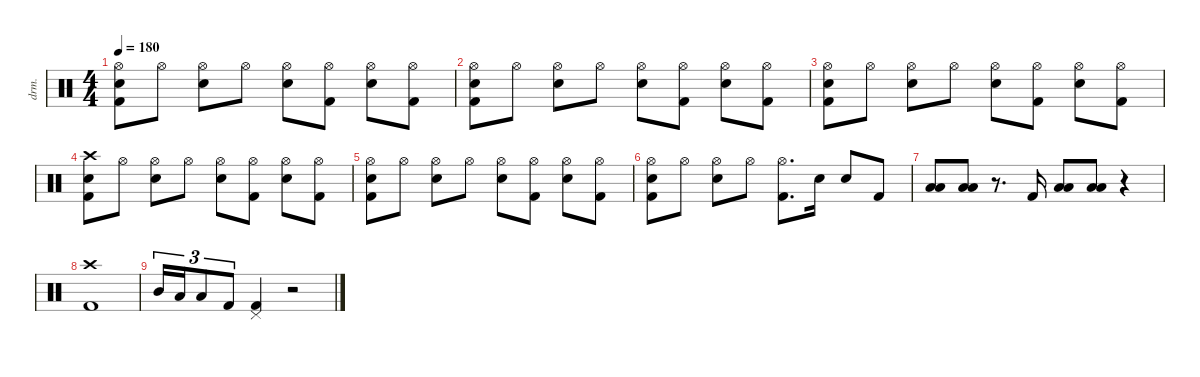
\defaultSystemsLayout 4
\hideDynamics
\bracketExtendMode nobrackets
\otherSystemsTrackNameOrientation horizontal
\track ("Drums: Ritsu Tainaka" "drm.") {instrument percussion}
\staff {score}
\articulation defaults
\ts (4 4)
\tempo 180
\clef neutral
\ks c
("Hi-Hat (open)" "Snare (hit) 2" "Kick (hit) 2").8{dy f beam Down} "Hi-Hat (open)".8{beam Down} ("Hi-Hat (open)" "Snare (hit) 2").8{beam Down} "Hi-Hat (open)".8{beam Down} ("Hi-Hat (open)" "Snare (hit) 2").8{beam Down} ("Hi-Hat (open)" "Kick (hit) 2").8{beam Down} ("Hi-Hat (open)" "Snare (hit) 2").8{beam Down} ("Hi-Hat (open)" "Kick (hit) 2").8{beam Down} |
("Hi-Hat (open)" "Snare (hit) 2" "Kick (hit) 2").8{beam Down} "Hi-Hat (open)".8{beam Down} ("Hi-Hat (open)" "Snare (hit) 2").8{beam Down} "Hi-Hat (open)".8{beam Down} ("Hi-Hat (open)" "Snare (hit) 2").8{beam Down} ("Hi-Hat (open)" "Kick (hit) 2").8{beam Down} ("Hi-Hat (open)" "Snare (hit) 2").8{beam Down} ("Hi-Hat (open)" "Kick (hit) 2").8{beam Down} |
("Hi-Hat (open)" "Snare (hit) 2" "Kick (hit) 2").8{beam Down} "Hi-Hat (open)".8{beam Down} ("Hi-Hat (open)" "Snare (hit) 2").8{beam Down} "Hi-Hat (open)".8{beam Down} ("Hi-Hat (open)" "Snare (hit) 2").8{beam Down} ("Hi-Hat (open)" "Kick (hit) 2").8{beam Down} ("Hi-Hat (open)" "Snare (hit) 2").8{beam Down} ("Hi-Hat (open)" "Kick (hit) 2").8{beam Down} |
("Crash high (hit)" "Snare (hit) 2" "Kick (hit) 2").8{beam Down} "Hi-Hat (open)".8{beam Down} ("Hi-Hat (open)" "Snare (hit) 2").8{beam Down} "Hi-Hat (open)".8{beam Down} ("Hi-Hat (open)" "Snare (hit) 2").8{beam Down} ("Hi-Hat (open)" "Kick (hit) 2").8{beam Down} ("Hi-Hat (open)" "Snare (hit) 2").8{beam Down} ("Hi-Hat (open)" "Kick (hit) 2").8{beam Down} |
("Hi-Hat (open)" "Snare (hit) 2" "Kick (hit) 2").8{beam Down} "Hi-Hat (open)".8{beam Down} ("Hi-Hat (open)" "Snare (hit) 2").8{beam Down} "Hi-Hat (open)".8{beam Down} ("Hi-Hat (open)" "Snare (hit) 2").8{beam Down} ("Hi-Hat (open)" "Kick (hit) 2").8{beam Down} ("Hi-Hat (open)" "Snare (hit) 2").8{beam Down} ("Hi-Hat (open)" "Kick (hit) 2").8{beam Down} |
("Hi-Hat (open)" "Snare (hit) 2" "Kick (hit) 2").8{beam Down} "Hi-Hat (open)".8{beam Down} ("Hi-Hat (open)" "Snare (hit) 2").8{beam Down} "Hi-Hat (open)".8{beam Down} ("Hi-Hat (open)" "Kick (hit) 2").8{d beam Down} "Snare (hit) 2".16{beam Down} "Snare (hit) 2".8{beam Up} "Kick (hit) 2".8{beam Up} |
("Low Tom (hit)" "Low Floor Tom (hit)").8{beam Up} ("Low Tom (hit)" "Low Floor Tom (hit)").8{beam Up} r.8{d beam Up} "Kick (hit) 2".16{beam Up} ("Low Tom (hit)" "Low Floor Tom (hit)").8{beam Up} ("Low Tom (hit)" "Low Floor Tom (hit)").8{beam Up} r.4{beam Up} |
("Crash high (hit)" "Kick (hit) 2").1{beam Down} |
"Mid Tom (hit)".16{tu (3 2) beam Up} "Low Tom (hit)".16{tu (3 2) beam Up} "Low Floor Tom (hit)".8{tu (3 2) beam Up} "Kick (hit) 2".8{tu (3 2) beam Up} ("Pedal Hi-Hat (hit)" "Kick (hit) 2").4{beam Up} r.2{beam Up}
